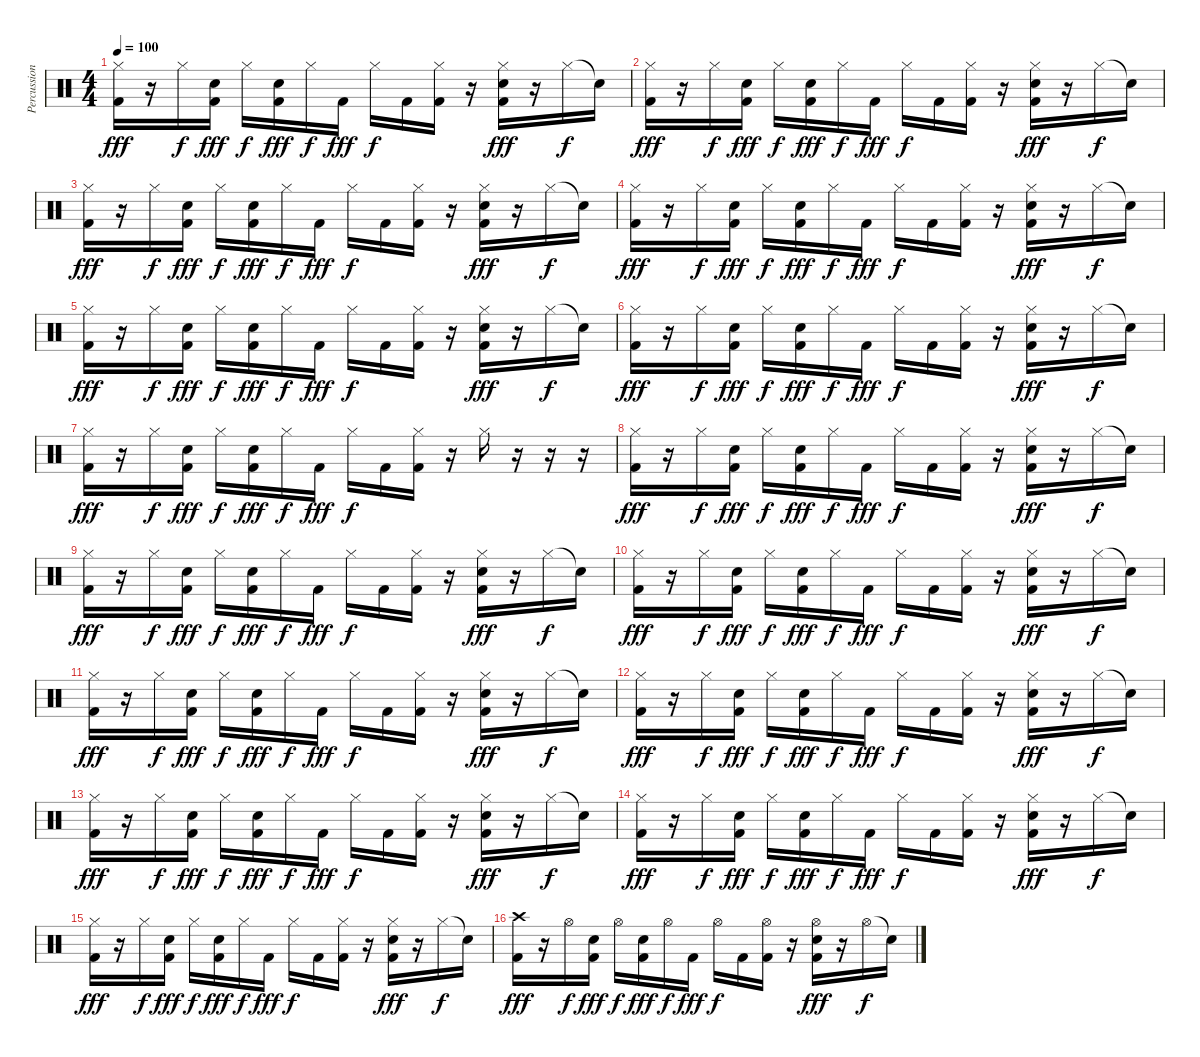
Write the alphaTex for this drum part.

\track ("Percussion" "Percussion") {instrument percussion}
\staff {score}
\articulation defaults
\ts (4 4)
\tempo 100
\clef neutral
\ks c
("Hi-Hat (closed)" "Kick (hit) 2").16{dy fff volume 16} r.16 "Hi-Hat (closed)".16{dy f} ("Snare (hit) 2" "Kick (hit) 2").16{dy fff} "Hi-Hat (closed)".16{dy f} ("Snare (hit) 2" "Kick (hit) 2").16{dy fff} "Hi-Hat (closed)".16{dy f} "Kick (hit) 2".16{dy fff} "Hi-Hat (closed)".16{dy f} "Kick (hit) 2".16 ("Hi-Hat (closed)" "Kick (hit) 2").16 r.16 ("Hi-Hat (closed)" "Snare (hit) 2" "Kick (hit) 2").16{dy fff} r.16 "Hi-Hat (closed)".16{dy f} "Snare (hit)"{t}.16 |
("Hi-Hat (closed)" "Kick (hit) 2").16{dy fff volume 16} r.16 "Hi-Hat (closed)".16{dy f} ("Snare (hit) 2" "Kick (hit) 2").16{dy fff} "Hi-Hat (closed)".16{dy f} ("Snare (hit) 2" "Kick (hit) 2").16{dy fff} "Hi-Hat (closed)".16{dy f} "Kick (hit) 2".16{dy fff} "Hi-Hat (closed)".16{dy f} "Kick (hit) 2".16 ("Hi-Hat (closed)" "Kick (hit) 2").16 r.16 ("Hi-Hat (closed)" "Snare (hit) 2" "Kick (hit) 2").16{dy fff} r.16 "Hi-Hat (closed)".16{dy f} "Snare (hit)"{t}.16 |
("Hi-Hat (closed)" "Kick (hit) 2").16{dy fff} r.16 "Hi-Hat (closed)".16{dy f} ("Snare (hit) 2" "Kick (hit) 2").16{dy fff} "Hi-Hat (closed)".16{dy f} ("Snare (hit) 2" "Kick (hit) 2").16{dy fff} "Hi-Hat (closed)".16{dy f} "Kick (hit) 2".16{dy fff} "Hi-Hat (closed)".16{dy f} "Kick (hit) 2".16 ("Hi-Hat (closed)" "Kick (hit) 2").16 r.16 ("Hi-Hat (closed)" "Snare (hit) 2" "Kick (hit) 2").16{dy fff} r.16 "Hi-Hat (closed)".16{dy f} "Snare (hit)"{t}.16 |
("Hi-Hat (closed)" "Kick (hit) 2").16{dy fff} r.16 "Hi-Hat (closed)".16{dy f} ("Snare (hit) 2" "Kick (hit) 2").16{dy fff} "Hi-Hat (closed)".16{dy f} ("Snare (hit) 2" "Kick (hit) 2").16{dy fff} "Hi-Hat (closed)".16{dy f} "Kick (hit) 2".16{dy fff} "Hi-Hat (closed)".16{dy f} "Kick (hit) 2".16 ("Hi-Hat (closed)" "Kick (hit) 2").16 r.16 ("Hi-Hat (closed)" "Snare (hit) 2" "Kick (hit) 2").16{dy fff} r.16 "Hi-Hat (closed)".16{dy f} "Snare (hit)"{t}.16 |
("Hi-Hat (closed)" "Kick (hit) 2").16{dy fff} r.16 "Hi-Hat (closed)".16{dy f} ("Snare (hit) 2" "Kick (hit) 2").16{dy fff} "Hi-Hat (closed)".16{dy f} ("Snare (hit) 2" "Kick (hit) 2").16{dy fff} "Hi-Hat (closed)".16{dy f} "Kick (hit) 2".16{dy fff} "Hi-Hat (closed)".16{dy f} "Kick (hit) 2".16 ("Hi-Hat (closed)" "Kick (hit) 2").16 r.16 ("Hi-Hat (closed)" "Snare (hit) 2" "Kick (hit) 2").16{dy fff} r.16 "Hi-Hat (closed)".16{dy f} "Snare (hit)"{t}.16 |
("Hi-Hat (closed)" "Kick (hit) 2").16{dy fff} r.16 "Hi-Hat (closed)".16{dy f} ("Snare (hit) 2" "Kick (hit) 2").16{dy fff} "Hi-Hat (closed)".16{dy f} ("Snare (hit) 2" "Kick (hit) 2").16{dy fff} "Hi-Hat (closed)".16{dy f} "Kick (hit) 2".16{dy fff} "Hi-Hat (closed)".16{dy f} "Kick (hit) 2".16 ("Hi-Hat (closed)" "Kick (hit) 2").16 r.16 ("Hi-Hat (closed)" "Snare (hit) 2" "Kick (hit) 2").16{dy fff} r.16 "Hi-Hat (closed)".16{dy f} "Snare (hit)"{t}.16 |
("Hi-Hat (closed)" "Kick (hit) 2").16{dy fff} r.16 "Hi-Hat (closed)".16{dy f} ("Snare (hit) 2" "Kick (hit) 2").16{dy fff} "Hi-Hat (closed)".16{dy f} ("Snare (hit) 2" "Kick (hit) 2").16{dy fff} "Hi-Hat (closed)".16{dy f} "Kick (hit) 2".16{dy fff} "Hi-Hat (closed)".16{dy f} "Kick (hit) 2".16 ("Hi-Hat (closed)" "Kick (hit) 2").16 r.16 "Hi-Hat (closed)".16 r.16 r.16 r.16 |
("Hi-Hat (closed)" "Kick (hit) 2").16{dy fff} r.16 "Hi-Hat (closed)".16{dy f} ("Snare (hit) 2" "Kick (hit) 2").16{dy fff} "Hi-Hat (closed)".16{dy f} ("Snare (hit) 2" "Kick (hit) 2").16{dy fff} "Hi-Hat (closed)".16{dy f} "Kick (hit) 2".16{dy fff} "Hi-Hat (closed)".16{dy f} "Kick (hit) 2".16 ("Hi-Hat (closed)" "Kick (hit) 2").16 r.16 ("Hi-Hat (closed)" "Snare (hit) 2" "Kick (hit) 2").16{dy fff} r.16 "Hi-Hat (closed)".16{dy f} "Snare (hit)"{t}.16 |
("Hi-Hat (closed)" "Kick (hit) 2").16{dy fff} r.16 "Hi-Hat (closed)".16{dy f} ("Snare (hit) 2" "Kick (hit) 2").16{dy fff} "Hi-Hat (closed)".16{dy f} ("Snare (hit) 2" "Kick (hit) 2").16{dy fff} "Hi-Hat (closed)".16{dy f} "Kick (hit) 2".16{dy fff} "Hi-Hat (closed)".16{dy f} "Kick (hit) 2".16 ("Hi-Hat (closed)" "Kick (hit) 2").16 r.16 ("Hi-Hat (closed)" "Snare (hit) 2" "Kick (hit) 2").16{dy fff} r.16 "Hi-Hat (closed)".16{dy f} "Snare (hit)"{t}.16 |
("Hi-Hat (closed)" "Kick (hit) 2").16{dy fff} r.16 "Hi-Hat (closed)".16{dy f} ("Snare (hit) 2" "Kick (hit) 2").16{dy fff} "Hi-Hat (closed)".16{dy f} ("Snare (hit) 2" "Kick (hit) 2").16{dy fff} "Hi-Hat (closed)".16{dy f} "Kick (hit) 2".16{dy fff} "Hi-Hat (closed)".16{dy f} "Kick (hit) 2".16 ("Hi-Hat (closed)" "Kick (hit) 2").16 r.16 ("Hi-Hat (closed)" "Snare (hit) 2" "Kick (hit) 2").16{dy fff} r.16 "Hi-Hat (closed)".16{dy f} "Snare (hit)"{t}.16 |
("Hi-Hat (closed)" "Kick (hit) 2").16{dy fff} r.16 "Hi-Hat (closed)".16{dy f} ("Snare (hit) 2" "Kick (hit) 2").16{dy fff} "Hi-Hat (closed)".16{dy f} ("Snare (hit) 2" "Kick (hit) 2").16{dy fff} "Hi-Hat (closed)".16{dy f} "Kick (hit) 2".16{dy fff} "Hi-Hat (closed)".16{dy f} "Kick (hit) 2".16 ("Hi-Hat (closed)" "Kick (hit) 2").16 r.16 ("Hi-Hat (closed)" "Snare (hit) 2" "Kick (hit) 2").16{dy fff} r.16 "Hi-Hat (closed)".16{dy f} "Snare (hit)"{t}.16 |
("Hi-Hat (closed)" "Kick (hit) 2").16{dy fff} r.16 "Hi-Hat (closed)".16{dy f} ("Snare (hit) 2" "Kick (hit) 2").16{dy fff} "Hi-Hat (closed)".16{dy f} ("Snare (hit) 2" "Kick (hit) 2").16{dy fff} "Hi-Hat (closed)".16{dy f} "Kick (hit) 2".16{dy fff} "Hi-Hat (closed)".16{dy f} "Kick (hit) 2".16 ("Hi-Hat (closed)" "Kick (hit) 2").16 r.16 ("Hi-Hat (closed)" "Snare (hit) 2" "Kick (hit) 2").16{dy fff} r.16 "Hi-Hat (closed)".16{dy f} "Snare (hit)"{t}.16 |
("Hi-Hat (closed)" "Kick (hit) 2").16{dy fff} r.16 "Hi-Hat (closed)".16{dy f} ("Snare (hit) 2" "Kick (hit) 2").16{dy fff} "Hi-Hat (closed)".16{dy f} ("Snare (hit) 2" "Kick (hit) 2").16{dy fff} "Hi-Hat (closed)".16{dy f} "Kick (hit) 2".16{dy fff} "Hi-Hat (closed)".16{dy f} "Kick (hit) 2".16 ("Hi-Hat (closed)" "Kick (hit) 2").16 r.16 ("Hi-Hat (closed)" "Snare (hit) 2" "Kick (hit) 2").16{dy fff} r.16 "Hi-Hat (closed)".16{dy f} "Snare (hit)"{t}.16 |
("Hi-Hat (closed)" "Kick (hit) 2").16{dy fff} r.16 "Hi-Hat (closed)".16{dy f} ("Snare (hit) 2" "Kick (hit) 2").16{dy fff} "Hi-Hat (closed)".16{dy f} ("Snare (hit) 2" "Kick (hit) 2").16{dy fff} "Hi-Hat (closed)".16{dy f} "Kick (hit) 2".16{dy fff} "Hi-Hat (closed)".16{dy f} "Kick (hit) 2".16 ("Hi-Hat (closed)" "Kick (hit) 2").16 r.16 ("Hi-Hat (closed)" "Snare (hit) 2" "Kick (hit) 2").16{dy fff} r.16 "Hi-Hat (closed)".16{dy f} "Snare (hit)"{t}.16 |
("Hi-Hat (closed)" "Kick (hit) 2").16{dy fff} r.16 "Hi-Hat (closed)".16{dy f} ("Snare (hit) 2" "Kick (hit) 2").16{dy fff} "Hi-Hat (closed)".16{dy f} ("Snare (hit) 2" "Kick (hit) 2").16{dy fff} "Hi-Hat (closed)".16{dy f} "Kick (hit) 2".16{dy fff} "Hi-Hat (closed)".16{dy f} "Kick (hit) 2".16 ("Hi-Hat (closed)" "Kick (hit) 2").16 r.16 ("Hi-Hat (closed)" "Snare (hit) 2" "Kick (hit) 2").16{dy fff} r.16 "Hi-Hat (closed)".16{dy f} "Snare (hit)"{t}.16 |
("Crash high (hit)" "Kick (hit) 2").16{dy fff volume 16} r.16 "Hi-Hat (open)".16{dy f} ("Snare (hit) 2" "Kick (hit) 2").16{dy fff} "Hi-Hat (open)".16{dy f} ("Snare (hit) 2" "Kick (hit) 2").16{dy fff} "Hi-Hat (open)".16{dy f} "Kick (hit) 2".16{dy fff} "Hi-Hat (open)".16{dy f} "Kick (hit) 2".16 ("Hi-Hat (open)" "Kick (hit) 2").16 r.16 ("Hi-Hat (open)" "Snare (hit) 2" "Kick (hit) 2").16{dy fff} r.16 "Hi-Hat (open)".16{dy f} "Snare (hit)"{t}.16
